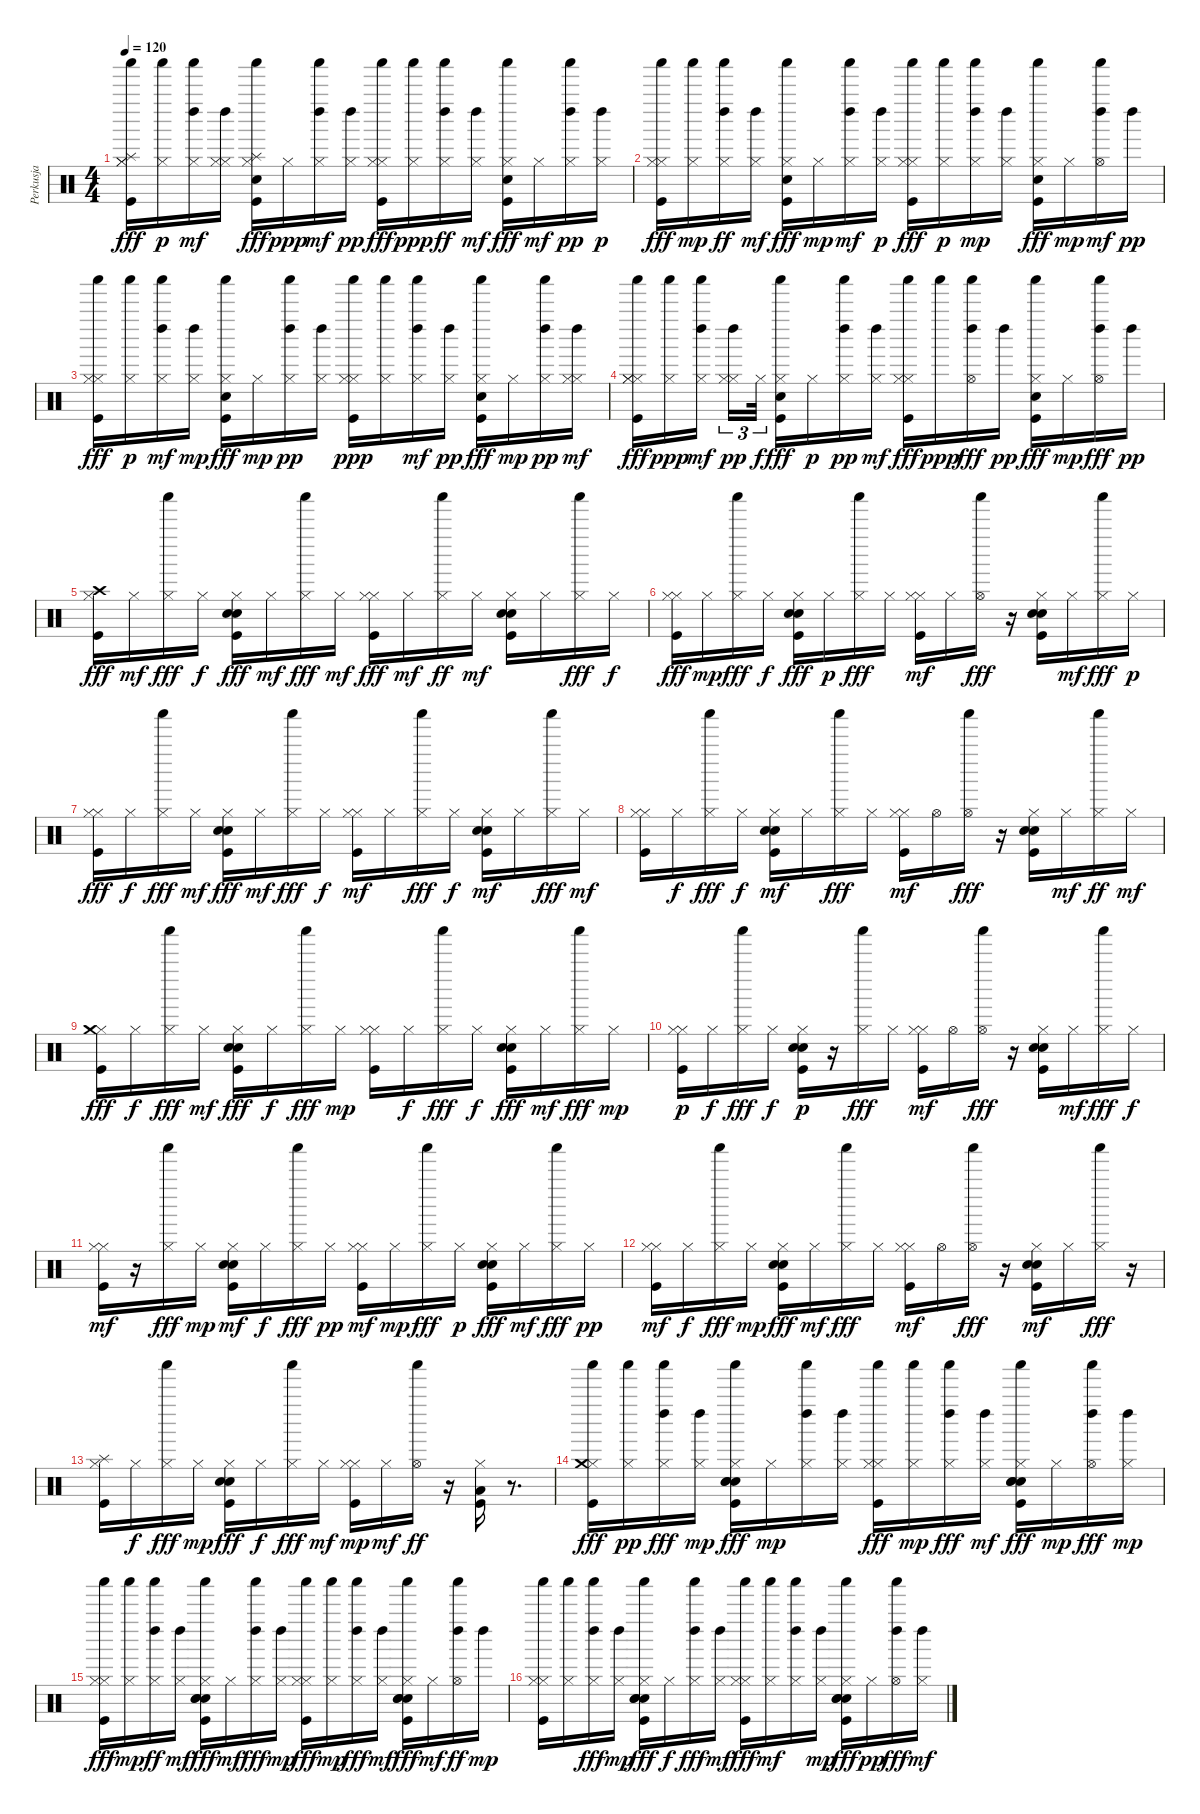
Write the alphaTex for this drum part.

\track ("Perkusja" "Perkusja") {instrument percussion}
\staff {score}
\articulation defaults
\ts (4 4)
\tempo 120
\clef neutral
\ks c
("Hi-Hat (closed)" "Hi-Hat (closed)" "Kick (hit)" "Shaker (hit)" "Splash (hit)").16{dy fff} ("Shaker (hit)" "Hi-Hat (closed)").16{dy p} ("Left Maraca (hit)" "Shaker (hit)" "Hi-Hat (closed)").16{dy mf} ("Hi-Hat (closed)" "Left Maraca (hit)" "Hi-Hat (closed)").16 ("Hi-Hat (closed)" "Kick (hit)" "Hand Clap (hit)" "Shaker (hit)" "Splash (hit)").16{dy fff} "Hi-Hat (closed)".16{dy ppp} ("Hi-Hat (closed)" "Left Maraca (hit)" "Shaker (hit)").16{dy mf} ("Left Maraca (hit)" "Hi-Hat (closed)").16{dy pp} ("Hi-Hat (closed)" "Kick (hit)" "Shaker (hit)" "Hi-Hat (closed)").16{dy fff} ("Hi-Hat (closed)" "Shaker (hit)").16{dy ppp} ("Left Maraca (hit)" "Shaker (hit)" "Hi-Hat (closed)").16{dy ff} ("Left Maraca (hit)" "Hi-Hat (closed)").16{dy mf} ("Kick (hit)" "Shaker (hit)" "Hand Clap (hit)" "Hi-Hat (closed)").16{dy fff} "Hi-Hat (closed)".16{dy mf} ("Left Maraca (hit)" "Shaker (hit)" "Hi-Hat (closed)").16{dy pp} ("Left Maraca (hit)" "Hi-Hat (closed)").16{dy p} |
("Hi-Hat (closed)" "Kick (hit)" "Shaker (hit)" "Hi-Hat (closed)").16{dy fff} ("Shaker (hit)" "Hi-Hat (closed)").16{dy mp} ("Left Maraca (hit)" "Shaker (hit)" "Hi-Hat (closed)").16{dy ff} ("Left Maraca (hit)" "Hi-Hat (closed)").16{dy mf} ("Kick (hit)" "Hand Clap (hit)" "Shaker (hit)" "Hi-Hat (closed)").16{dy fff} "Hi-Hat (closed)".16{dy mp} ("Left Maraca (hit)" "Shaker (hit)" "Hi-Hat (closed)").16{dy mf} ("Left Maraca (hit)" "Hi-Hat (closed)").16{dy p} ("Hi-Hat (closed)" "Kick (hit)" "Shaker (hit)" "Hi-Hat (closed)").16{dy fff} ("Shaker (hit)" "Hi-Hat (closed)").16{dy p} ("Hi-Hat (closed)" "Left Maraca (hit)" "Shaker (hit)").16{dy mp} ("Left Maraca (hit)" "Hi-Hat (closed)").16 ("Kick (hit)" "Shaker (hit)" "Hand Clap (hit)" "Hi-Hat (closed)").16{dy fff} "Hi-Hat (closed)".16{dy mp} ("Hi-Hat (open)" "Left Maraca (hit)" "Shaker (hit)").16{dy mf} "Left Maraca (hit)".16{dy pp} |
("Hi-Hat (closed)" "Kick (hit)" "Shaker (hit)" "Hi-Hat (closed)").16{dy fff} ("Shaker (hit)" "Hi-Hat (closed)").16{dy p} ("Left Maraca (hit)" "Shaker (hit)" "Hi-Hat (closed)").16{dy mf} ("Left Maraca (hit)" "Hi-Hat (closed)").16{dy mp} ("Kick (hit)" "Hand Clap (hit)" "Shaker (hit)" "Hi-Hat (closed)").16{dy fff} "Hi-Hat (closed)".16{dy mp} ("Hi-Hat (closed)" "Left Maraca (hit)" "Shaker (hit)").16{dy pp} ("Hi-Hat (closed)" "Left Maraca (hit)").16 ("Hi-Hat (closed)" "Kick (hit)" "Hi-Hat (closed)" "Shaker (hit)").16{dy ppp} ("Hi-Hat (closed)" "Shaker (hit)").16 ("Hi-Hat (closed)" "Left Maraca (hit)" "Shaker (hit)").16{dy mf} ("Hi-Hat (closed)" "Left Maraca (hit)").16{dy pp} ("Kick (hit)" "Shaker (hit)" "Hand Clap (hit)" "Hi-Hat (closed)").16{dy fff} "Hi-Hat (closed)".16{dy mp} ("Hi-Hat (closed)" "Left Maraca (hit)" "Shaker (hit)").16{dy pp} ("Hi-Hat (closed)" "Left Maraca (hit)" "Hi-Hat (closed)").16{dy mf} |
("Hi-Hat (closed)" "Hi-Hat (closed)" "Kick (hit)" "Shaker (hit)" "Hi-Hat (closed)").16{dy fff} ("Shaker (hit)" "Hi-Hat (closed)").16{dy ppp} ("Left Maraca (hit)" "Shaker (hit)" "Hi-Hat (closed)").16{dy mf} ("Hi-Hat (closed)" "Hi-Hat (closed)" "Left Maraca (hit)").16{tu (3 2) dy pp} "Hi-Hat (closed)".32{tu (3 2) dy f} ("Kick (hit)" "Shaker (hit)" "Hand Clap (hit)" "Hi-Hat (closed)").16{dy fff} "Hi-Hat (closed)".16{dy p} ("Left Maraca (hit)" "Shaker (hit)" "Hi-Hat (closed)").16{dy pp} ("Left Maraca (hit)" "Hi-Hat (closed)").16{dy mf} ("Hi-Hat (closed)" "Kick (hit)" "Shaker (hit)" "Hi-Hat (closed)").16{dy fff} "Shaker (hit)".16{dy ppp} ("Left Maraca (hit)" "Shaker (hit)" "Hi-Hat (open)").16{dy fff} "Left Maraca (hit)".16{dy pp} ("Kick (hit)" "Hand Clap (hit)" "Shaker (hit)" "Hi-Hat (closed)").16{dy fff} "Hi-Hat (closed)".16{dy mp} ("Left Maraca (hit)" "Shaker (hit)" "Hi-Hat (open)").16{dy fff} "Left Maraca (hit)".16{dy pp} |
("Hi-Hat (closed)" "Kick (hit)" "Crash high (hit)").16{dy fff} "Hi-Hat (closed)".16{dy mf} ("Hi-Hat (closed)" "Shaker (hit)").16{dy fff} "Hi-Hat (closed)".16{dy f} ("Kick (hit)" "Electric Snare (hit)" "Hi-Hat (closed)" "Hand Clap (hit)").16{dy fff} "Hi-Hat (closed)".16{dy mf} ("Hi-Hat (closed)" "Shaker (hit)").16{dy fff} "Hi-Hat (closed)".16{dy mf} ("Hi-Hat (closed)" "Kick (hit)" "Hi-Hat (closed)").16{dy fff} "Hi-Hat (closed)".16{dy mf} ("Hi-Hat (closed)" "Shaker (hit)").16{dy ff} "Hi-Hat (closed)".16{dy mf} ("Kick (hit)" "Hand Clap (hit)" "Electric Snare (hit)" "Hi-Hat (closed)").16 "Hi-Hat (closed)".16 ("Hi-Hat (closed)" "Shaker (hit)").16{dy fff} "Hi-Hat (closed)".16{dy f} |
("Hi-Hat (closed)" "Kick (hit)" "Hi-Hat (closed)").16{dy fff} "Hi-Hat (closed)".16{dy mp} ("Hi-Hat (closed)" "Shaker (hit)").16{dy fff} "Hi-Hat (closed)".16{dy f} ("Kick (hit)" "Electric Snare (hit)" "Hi-Hat (closed)" "Hand Clap (hit)").16{dy fff} "Hi-Hat (closed)".16{dy p} ("Hi-Hat (closed)" "Shaker (hit)").16{dy fff} "Hi-Hat (closed)".16 ("Hi-Hat (closed)" "Kick (hit)" "Hi-Hat (closed)").16{dy mf} "Hi-Hat (closed)".16 ("Hi-Hat (open)" "Shaker (hit)").16{dy fff} r.16 ("Kick (hit)" "Hand Clap (hit)" "Electric Snare (hit)" "Hi-Hat (closed)").16 "Hi-Hat (closed)".16{dy mf} ("Hi-Hat (closed)" "Shaker (hit)").16{dy fff} "Hi-Hat (closed)".16{dy p} |
("Hi-Hat (closed)" "Kick (hit)" "Hi-Hat (closed)").16{dy fff} "Hi-Hat (closed)".16{dy f} ("Hi-Hat (closed)" "Shaker (hit)").16{dy fff} "Hi-Hat (closed)".16{dy mf} ("Electric Snare (hit)" "Kick (hit)" "Hand Clap (hit)" "Hi-Hat (closed)").16{dy fff} "Hi-Hat (closed)".16{dy mf} ("Hi-Hat (closed)" "Shaker (hit)").16{dy fff} "Hi-Hat (closed)".16{dy f} ("Hi-Hat (closed)" "Kick (hit)" "Hi-Hat (closed)").16{dy mf} "Hi-Hat (closed)".16 ("Hi-Hat (closed)" "Shaker (hit)").16{dy fff} "Hi-Hat (closed)".16{dy f} ("Kick (hit)" "Hand Clap (hit)" "Electric Snare (hit)" "Hi-Hat (closed)").16{dy mf} "Hi-Hat (closed)".16 ("Hi-Hat (closed)" "Shaker (hit)").16{dy fff} "Hi-Hat (closed)".16{dy mf} |
("Hi-Hat (closed)" "Kick (hit)" "Hi-Hat (closed)").16 "Hi-Hat (closed)".16{dy f} ("Hi-Hat (closed)" "Shaker (hit)").16{dy fff} "Hi-Hat (closed)".16{dy f} ("Kick (hit)" "Hand Clap (hit)" "Electric Snare (hit)" "Hi-Hat (closed)").16{dy mf} "Hi-Hat (closed)".16 ("Hi-Hat (closed)" "Shaker (hit)").16{dy fff} "Hi-Hat (closed)".16 ("Hi-Hat (closed)" "Kick (hit)" "Hi-Hat (closed)").16{dy mf} "Hi-Hat (open)".16 ("Hi-Hat (open)" "Shaker (hit)").16{dy fff} r.16 ("Kick (hit)" "Electric Snare (hit)" "Hi-Hat (closed)" "Hand Clap (hit)").16 "Hi-Hat (closed)".16{dy mf} ("Hi-Hat (closed)" "Shaker (hit)").16{dy ff} "Hi-Hat (closed)".16{dy mf} |
("Hi-Hat (closed)" "Kick (hit)" "Crash medium (hit)").16{dy fff} "Hi-Hat (closed)".16{dy f} ("Hi-Hat (closed)" "Shaker (hit)").16{dy fff} "Hi-Hat (closed)".16{dy mf} ("Kick (hit)" "Hand Clap (hit)" "Electric Snare (hit)" "Hi-Hat (closed)").16{dy fff} "Hi-Hat (closed)".16{dy f} ("Hi-Hat (closed)" "Shaker (hit)").16{dy fff} "Hi-Hat (closed)".16{dy mp} ("Hi-Hat (closed)" "Kick (hit)" "Hi-Hat (closed)").16 "Hi-Hat (closed)".16{dy f} ("Hi-Hat (closed)" "Shaker (hit)").16{dy fff} "Hi-Hat (closed)".16{dy f} ("Kick (hit)" "Electric Snare (hit)" "Hi-Hat (closed)" "Hand Clap (hit)").16{dy fff} "Hi-Hat (closed)".16{dy mf} ("Hi-Hat (closed)" "Shaker (hit)").16{dy fff} "Hi-Hat (closed)".16{dy mp} |
("Hi-Hat (closed)" "Kick (hit)" "Hi-Hat (closed)").16{dy p} "Hi-Hat (closed)".16{dy f} ("Hi-Hat (closed)" "Shaker (hit)").16{dy fff} "Hi-Hat (closed)".16{dy f} ("Kick (hit)" "Hand Clap (hit)" "Electric Snare (hit)" "Hi-Hat (closed)").16{dy p} r.16 ("Hi-Hat (closed)" "Shaker (hit)").16{dy fff} "Hi-Hat (closed)".16 ("Hi-Hat (closed)" "Kick (hit)" "Hi-Hat (closed)").16{dy mf} "Hi-Hat (open)".16 ("Hi-Hat (open)" "Shaker (hit)").16{dy fff} r.16 ("Kick (hit)" "Electric Snare (hit)" "Hi-Hat (closed)" "Hand Clap (hit)").16 "Hi-Hat (closed)".16{dy mf} ("Hi-Hat (closed)" "Shaker (hit)").16{dy fff} "Hi-Hat (closed)".16{dy f} |
("Hi-Hat (closed)" "Kick (hit)" "Hi-Hat (closed)").16{dy mf} r.16 ("Hi-Hat (closed)" "Shaker (hit)").16{dy fff} "Hi-Hat (closed)".16{dy mp} ("Electric Snare (hit)" "Kick (hit)" "Hand Clap (hit)" "Hi-Hat (closed)").16{dy mf} "Hi-Hat (closed)".16{dy f} ("Hi-Hat (closed)" "Shaker (hit)").16{dy fff} "Hi-Hat (closed)".16{dy pp} ("Hi-Hat (closed)" "Kick (hit)" "Hi-Hat (closed)").16{dy mf} "Hi-Hat (closed)".16{dy mp} ("Hi-Hat (closed)" "Shaker (hit)").16{dy fff} "Hi-Hat (closed)".16{dy p} ("Kick (hit)" "Electric Snare (hit)" "Hi-Hat (closed)" "Hand Clap (hit)").16{dy fff} "Hi-Hat (closed)".16{dy mf} ("Hi-Hat (closed)" "Shaker (hit)").16{dy fff} "Hi-Hat (closed)".16{dy pp} |
("Hi-Hat (closed)" "Kick (hit)" "Hi-Hat (closed)").16{dy mf} "Hi-Hat (closed)".16{dy f} ("Hi-Hat (closed)" "Shaker (hit)").16{dy fff} "Hi-Hat (closed)".16{dy mp} ("Kick (hit)" "Electric Snare (hit)" "Hi-Hat (closed)" "Hand Clap (hit)").16{dy fff} "Hi-Hat (closed)".16{dy mf} ("Hi-Hat (closed)" "Shaker (hit)").16{dy fff} "Hi-Hat (closed)".16 ("Hi-Hat (closed)" "Kick (hit)" "Hi-Hat (closed)").16{dy mf} "Hi-Hat (open)".16 ("Hi-Hat (open)" "Shaker (hit)").16{dy fff} r.16 ("Kick (hit)" "Hand Clap (hit)" "Electric Snare (hit)" "Hi-Hat (closed)").16{dy mf} "Hi-Hat (closed)".16 ("Hi-Hat (closed)" "Shaker (hit)").16{dy fff} r.16 |
("Hi-Hat (closed)" "Kick (hit)" "Splash (hit)").16 "Hi-Hat (closed)".16{dy f} ("Hi-Hat (closed)" "Shaker (hit)").16{dy fff} "Hi-Hat (closed)".16{dy mp} ("Kick (hit)" "Electric Snare (hit)" "Hi-Hat (closed)" "Hand Clap (hit)").16{dy fff} "Hi-Hat (closed)".16{dy f} ("Hi-Hat (closed)" "Shaker (hit)").16{dy fff} "Hi-Hat (closed)".16{dy mf} ("Hi-Hat (closed)" "Kick (hit)" "Hi-Hat (closed)").16{dy mp} "Hi-Hat (closed)".16{dy mf} ("Hi-Hat (open)" "Shaker (hit)").16{dy ff} r.16 ("Kick (hit)" "Low Floor Tom (hit)" "Hi-Hat (closed)").16 r.8{d} |
("Hi-Hat (closed)" "Kick (hit)" "Shaker (hit)" "Crash medium (hit)").16{dy fff} ("Shaker (hit)" "Hi-Hat (closed)").16{dy pp} ("Hi-Hat (closed)" "Left Maraca (hit)" "Shaker (hit)").16{dy fff} ("Hi-Hat (closed)" "Left Maraca (hit)").16{dy mp} ("Hi-Hat (closed)" "Kick (hit)" "Snare (hit) 2" "Electric Snare (hit)" "Shaker (hit)" "Hand Clap (hit)").16{dy fff} "Hi-Hat (closed)".16{dy mp} ("Hi-Hat (closed)" "Left Maraca (hit)" "Shaker (hit)").16 ("Left Maraca (hit)" "Hi-Hat (closed)").16 ("Hi-Hat (closed)" "Kick (hit)" "Shaker (hit)" "Hi-Hat (closed)").16{dy fff} ("Shaker (hit)" "Hi-Hat (closed)").16{dy mp} ("Left Maraca (hit)" "Shaker (hit)" "Hi-Hat (closed)").16{dy fff} ("Left Maraca (hit)" "Hi-Hat (closed)").16{dy mf} ("Kick (hit)" "Snare (hit) 2" "Hand Clap (hit)" "Electric Snare (hit)" "Shaker (hit)" "Hi-Hat (closed)").16{dy fff} "Hi-Hat (closed)".16{dy mp} ("Left Maraca (hit)" "Shaker (hit)" "Hi-Hat (open)").16{dy fff} ("Left Maraca (hit)" "Hi-Hat (closed)").16{dy mp} |
("Hi-Hat (closed)" "Kick (hit)" "Shaker (hit)" "Hi-Hat (closed)").16{dy fff} ("Shaker (hit)" "Hi-Hat (closed)").16{dy mp} ("Hi-Hat (closed)" "Left Maraca (hit)" "Shaker (hit)").16{dy ff} ("Left Maraca (hit)" "Hi-Hat (closed)").16{dy mf} ("Kick (hit)" "Snare (hit) 2" "Electric Snare (hit)" "Shaker (hit)" "Hand Clap (hit)" "Hi-Hat (closed)").16{dy fff} "Hi-Hat (closed)".16{dy mf} ("Hi-Hat (closed)" "Left Maraca (hit)" "Shaker (hit)").16{dy fff} ("Hi-Hat (closed)" "Left Maraca (hit)").16{dy mp} ("Hi-Hat (closed)" "Kick (hit)" "Shaker (hit)" "Hi-Hat (closed)").16{dy fff} ("Hi-Hat (closed)" "Shaker (hit)").16{dy mp} ("Hi-Hat (closed)" "Left Maraca (hit)" "Shaker (hit)").16{dy fff} ("Left Maraca (hit)" "Hi-Hat (closed)").16{dy mf} ("Kick (hit)" "Snare (hit) 2" "Hand Clap (hit)" "Electric Snare (hit)" "Hi-Hat (closed)" "Shaker (hit)").16{dy fff} "Hi-Hat (closed)".16{dy mf} ("Hi-Hat (open)" "Left Maraca (hit)" "Shaker (hit)").16{dy ff} "Left Maraca (hit)".16{dy mp} |
("Hi-Hat (closed)" "Hi-Hat (closed)" "Kick (hit)" "Shaker (hit)").16 ("Hi-Hat (closed)" "Shaker (hit)").16 ("Left Maraca (hit)" "Shaker (hit)" "Hi-Hat (closed)").16{dy fff} ("Hi-Hat (closed)" "Left Maraca (hit)").16{dy mp} ("Snare (hit) 2" "Electric Snare (hit)" "Kick (hit)" "Hand Clap (hit)" "Shaker (hit)" "Hi-Hat (closed)").16{dy fff} "Hi-Hat (closed)".16{dy f} ("Left Maraca (hit)" "Shaker (hit)" "Hi-Hat (closed)").16{dy fff} ("Left Maraca (hit)" "Hi-Hat (closed)").16{dy mf} ("Hi-Hat (closed)" "Kick (hit)" "Shaker (hit)" "Hi-Hat (closed)").16{dy fff} ("Shaker (hit)" "Hi-Hat (closed)").16{dy mf} ("Left Maraca (hit)" "Shaker (hit)" "Hi-Hat (closed)").16 ("Left Maraca (hit)" "Hi-Hat (closed)").16{dy mp} ("Kick (hit)" "Snare (hit) 2" "Hand Clap (hit)" "Electric Snare (hit)" "Shaker (hit)" "Hi-Hat (closed)").16{dy fff} "Hi-Hat (closed)".16{dy pp} ("Left Maraca (hit)" "Shaker (hit)" "Hi-Hat (open)").16{dy fff} ("Left Maraca (hit)" "Hi-Hat (closed)").16{dy mf}
